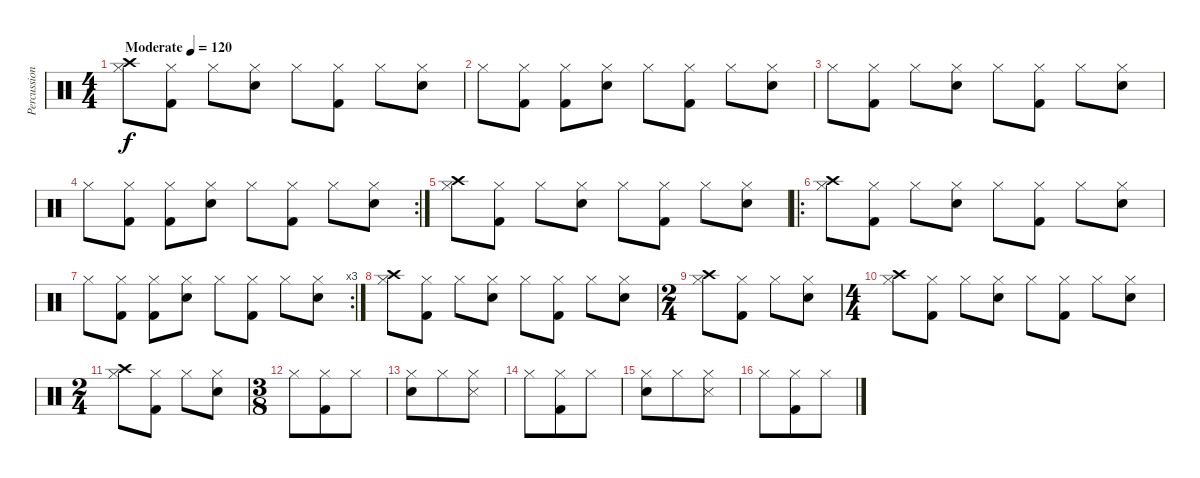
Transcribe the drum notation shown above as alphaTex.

\track ("Percussion" "Percussion") {instrument percussion}
\staff {score}
\articulation defaults
\ts (4 4)
\tempo (120 "Moderate")
\clef neutral
\ks c
("Hi-Hat (closed)" "Crash high (hit)").8{dy f} ("Kick (hit) 2" "Hi-Hat (closed)").8 "Hi-Hat (closed)".8 ("Electric Snare (hit)" "Hi-Hat (closed)").8 "Hi-Hat (closed)".8 ("Kick (hit) 2" "Hi-Hat (closed)").8 "Hi-Hat (closed)".8 ("Electric Snare (hit)" "Hi-Hat (closed)").8 |
"Hi-Hat (closed)".8 ("Kick (hit) 2" "Hi-Hat (closed)").8 ("Hi-Hat (closed)" "Kick (hit) 2").8 ("Electric Snare (hit)" "Hi-Hat (closed)").8 "Hi-Hat (closed)".8 ("Kick (hit) 2" "Hi-Hat (closed)").8 "Hi-Hat (closed)".8 ("Electric Snare (hit)" "Hi-Hat (closed)").8 |
"Hi-Hat (closed)".8 ("Kick (hit) 2" "Hi-Hat (closed)").8 "Hi-Hat (closed)".8 ("Electric Snare (hit)" "Hi-Hat (closed)").8 "Hi-Hat (closed)".8 ("Kick (hit) 2" "Hi-Hat (closed)").8 "Hi-Hat (closed)".8 ("Electric Snare (hit)" "Hi-Hat (closed)").8 |
\rc 2 "Hi-Hat (closed)".8
("Kick (hit) 2" "Hi-Hat (closed)").8 ("Hi-Hat (closed)" "Kick (hit) 2").8 ("Electric Snare (hit)" "Hi-Hat (closed)").8 "Hi-Hat (closed)".8 ("Kick (hit) 2" "Hi-Hat (closed)").8 "Hi-Hat (closed)".8 ("Electric Snare (hit)" "Hi-Hat (closed)").8 |
("Hi-Hat (closed)" "Crash high (hit)").8 ("Kick (hit) 2" "Hi-Hat (closed)").8 "Hi-Hat (closed)".8 ("Electric Snare (hit)" "Hi-Hat (closed)").8 "Hi-Hat (closed)".8 ("Kick (hit) 2" "Hi-Hat (closed)").8 "Hi-Hat (closed)".8 ("Electric Snare (hit)" "Hi-Hat (closed)").8 |
\ro
("Hi-Hat (closed)" "Crash high (hit)").8 ("Kick (hit) 2" "Hi-Hat (closed)").8 "Hi-Hat (closed)".8 ("Electric Snare (hit)" "Hi-Hat (closed)").8 "Hi-Hat (closed)".8 ("Kick (hit) 2" "Hi-Hat (closed)").8 "Hi-Hat (closed)".8 ("Electric Snare (hit)" "Hi-Hat (closed)").8 |
\rc 3 "Hi-Hat (closed)".8
("Kick (hit) 2" "Hi-Hat (closed)").8 ("Hi-Hat (closed)" "Kick (hit) 2").8 ("Electric Snare (hit)" "Hi-Hat (closed)").8 "Hi-Hat (closed)".8 ("Kick (hit) 2" "Hi-Hat (closed)").8 "Hi-Hat (closed)".8 ("Electric Snare (hit)" "Hi-Hat (closed)").8 |
("Hi-Hat (closed)" "Crash high (hit)").8 ("Kick (hit) 2" "Hi-Hat (closed)").8 "Hi-Hat (closed)".8 ("Electric Snare (hit)" "Hi-Hat (closed)").8 "Hi-Hat (closed)".8 ("Kick (hit) 2" "Hi-Hat (closed)").8 "Hi-Hat (closed)".8 ("Electric Snare (hit)" "Hi-Hat (closed)").8 |
\ts (2 4)
("Hi-Hat (closed)" "Crash high (hit)").8 ("Kick (hit) 2" "Hi-Hat (closed)").8 "Hi-Hat (closed)".8 ("Electric Snare (hit)" "Hi-Hat (closed)").8 |
\ts (4 4)
("Hi-Hat (closed)" "Crash high (hit)").8 ("Kick (hit) 2" "Hi-Hat (closed)").8 "Hi-Hat (closed)".8 ("Electric Snare (hit)" "Hi-Hat (closed)").8 "Hi-Hat (closed)".8 ("Kick (hit) 2" "Hi-Hat (closed)").8 "Hi-Hat (closed)".8 ("Electric Snare (hit)" "Hi-Hat (closed)").8 |
\ts (2 4)
("Hi-Hat (closed)" "Crash high (hit)").8 ("Kick (hit) 2" "Hi-Hat (closed)").8 "Hi-Hat (closed)".8 ("Electric Snare (hit)" "Hi-Hat (closed)").8 |
\ts (3 8)
"Hi-Hat (closed)".8 ("Hi-Hat (closed)" "Kick (hit) 2").8 "Hi-Hat (closed)".8 |
("Hi-Hat (closed)" "Electric Snare (hit)").8 "Hi-Hat (closed)".8 ("Hi-Hat (closed)" "Snare (side stick) 3").8 |
"Hi-Hat (closed)".8 ("Hi-Hat (closed)" "Kick (hit) 2").8 "Hi-Hat (closed)".8 |
("Hi-Hat (closed)" "Electric Snare (hit)").8 "Hi-Hat (closed)".8 ("Hi-Hat (closed)" "Snare (side stick) 3").8 |
"Hi-Hat (closed)".8 ("Hi-Hat (closed)" "Kick (hit) 2").8 "Hi-Hat (closed)".8
